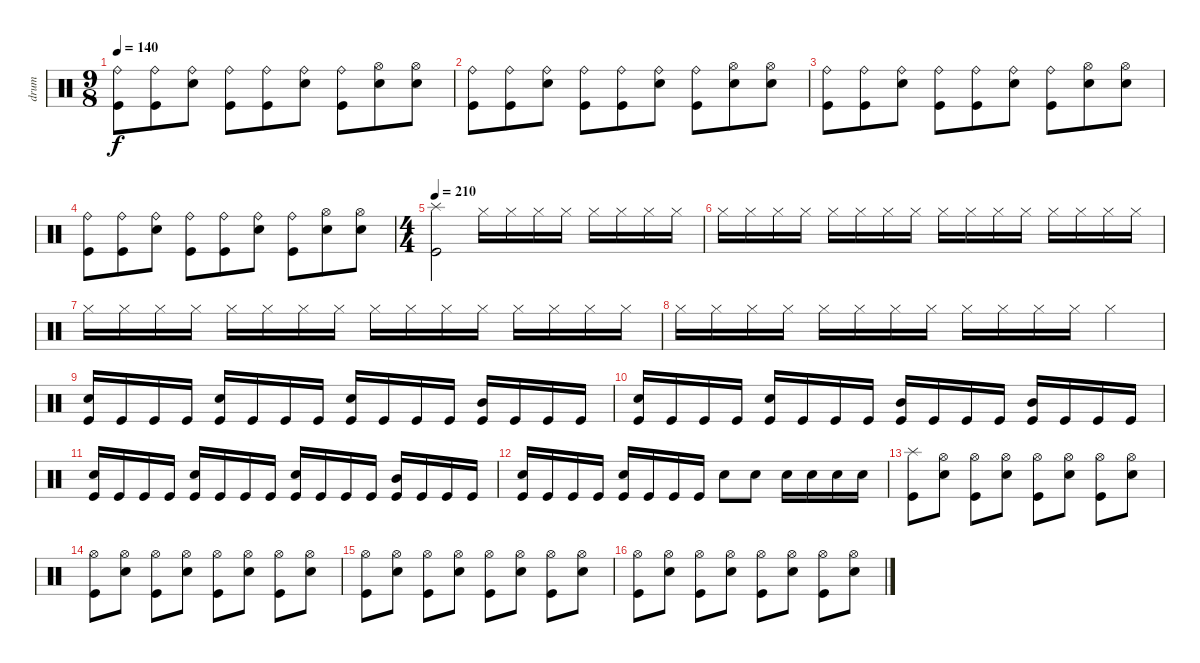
\track ("drum" "drum") {instrument percussion}
\staff {score}
\articulation defaults
\ts (9 8)
\tempo 140
\clef neutral
\ks c
("Kick (hit)" "Ride (bell)").8{dy f} ("Kick (hit)" "Ride (bell)").8 ("Electric Snare (hit)" "Ride (bell)").8 ("Kick (hit)" "Ride (bell)").8 ("Kick (hit)" "Ride (bell)").8 ("Electric Snare (hit)" "Ride (bell)").8 ("Kick (hit)" "Ride (bell)").8 ("Electric Snare (hit)" "Hi-Hat (open)").8 ("Electric Snare (hit)" "Hi-Hat (open)").8 |
("Kick (hit)" "Ride (bell)").8 ("Kick (hit)" "Ride (bell)").8 ("Electric Snare (hit)" "Ride (bell)").8 ("Kick (hit)" "Ride (bell)").8 ("Kick (hit)" "Ride (bell)").8 ("Electric Snare (hit)" "Ride (bell)").8 ("Kick (hit)" "Ride (bell)").8 ("Electric Snare (hit)" "Hi-Hat (open)").8 ("Electric Snare (hit)" "Hi-Hat (open)").8 |
("Kick (hit)" "Ride (bell)").8 ("Kick (hit)" "Ride (bell)").8 ("Electric Snare (hit)" "Ride (bell)").8 ("Kick (hit)" "Ride (bell)").8 ("Kick (hit)" "Ride (bell)").8 ("Electric Snare (hit)" "Ride (bell)").8 ("Kick (hit)" "Ride (bell)").8 ("Electric Snare (hit)" "Hi-Hat (open)").8 ("Electric Snare (hit)" "Hi-Hat (open)").8 |
("Kick (hit)" "Ride (bell)").8 ("Kick (hit)" "Ride (bell)").8 ("Electric Snare (hit)" "Ride (bell)").8 ("Kick (hit)" "Ride (bell)").8 ("Kick (hit)" "Ride (bell)").8 ("Electric Snare (hit)" "Ride (bell)").8 ("Kick (hit)" "Ride (bell)").8 ("Electric Snare (hit)" "Hi-Hat (open)").8 ("Electric Snare (hit)" "Hi-Hat (open)").8 |
\ts (4 4)
\tempo 210
("Kick (hit)" "Splash (hit)").2 "Hi-Hat (closed)".16 "Hi-Hat (closed)".16 "Hi-Hat (closed)".16 "Hi-Hat (closed)".16 "Hi-Hat (closed)".16 "Hi-Hat (closed)".16 "Hi-Hat (closed)".16 "Hi-Hat (closed)".16 |
"Hi-Hat (closed)".16 "Hi-Hat (closed)".16 "Hi-Hat (closed)".16 "Hi-Hat (closed)".16 "Hi-Hat (closed)".16 "Hi-Hat (closed)".16 "Hi-Hat (closed)".16 "Hi-Hat (closed)".16 "Hi-Hat (closed)".16 "Hi-Hat (closed)".16 "Hi-Hat (closed)".16 "Hi-Hat (closed)".16 "Hi-Hat (closed)".16 "Hi-Hat (closed)".16 "Hi-Hat (closed)".16 "Hi-Hat (closed)".16 |
"Hi-Hat (closed)".16 "Hi-Hat (closed)".16 "Hi-Hat (closed)".16 "Hi-Hat (closed)".16 "Hi-Hat (closed)".16 "Hi-Hat (closed)".16 "Hi-Hat (closed)".16 "Hi-Hat (closed)".16 "Hi-Hat (closed)".16 "Hi-Hat (closed)".16 "Hi-Hat (closed)".16 "Hi-Hat (closed)".16 "Hi-Hat (closed)".16 "Hi-Hat (closed)".16 "Hi-Hat (closed)".16 "Hi-Hat (closed)".16 |
"Hi-Hat (closed)".16 "Hi-Hat (closed)".16 "Hi-Hat (closed)".16 "Hi-Hat (closed)".16 "Hi-Hat (closed)".16 "Hi-Hat (closed)".16 "Hi-Hat (closed)".16 "Hi-Hat (closed)".16 "Hi-Hat (closed)".16 "Hi-Hat (closed)".16 "Hi-Hat (closed)".16 "Hi-Hat (closed)".16 "Hi-Hat (closed)".4 |
("Kick (hit)" "Electric Snare (hit)").16 "Kick (hit)".16 "Kick (hit)".16 "Kick (hit)".16 ("Kick (hit)" "Electric Snare (hit)").16 "Kick (hit)".16 "Kick (hit)".16 "Kick (hit)".16 ("Kick (hit)" "Electric Snare (hit)").16 "Kick (hit)".16 "Kick (hit)".16 "Kick (hit)".16 ("Kick (hit)" "Mid Tom (hit)").16 "Kick (hit)".16 "Kick (hit)".16 "Kick (hit)".16 |
("Kick (hit)" "Electric Snare (hit)").16 "Kick (hit)".16 "Kick (hit)".16 "Kick (hit)".16 ("Kick (hit)" "Electric Snare (hit)").16 "Kick (hit)".16 "Kick (hit)".16 "Kick (hit)".16 ("Kick (hit)" "Mid Tom (hit)").16 "Kick (hit)".16 "Kick (hit)".16 "Kick (hit)".16 ("Kick (hit)" "Mid Tom (hit)").16 "Kick (hit)".16 "Kick (hit)".16 "Kick (hit)".16 |
("Kick (hit)" "Electric Snare (hit)").16 "Kick (hit)".16 "Kick (hit)".16 "Kick (hit)".16 ("Kick (hit)" "Electric Snare (hit)").16 "Kick (hit)".16 "Kick (hit)".16 "Kick (hit)".16 ("Kick (hit)" "Electric Snare (hit)").16 "Kick (hit)".16 "Kick (hit)".16 "Kick (hit)".16 ("Kick (hit)" "Mid Tom (hit)").16 "Kick (hit)".16 "Kick (hit)".16 "Kick (hit)".16 |
("Kick (hit)" "Electric Snare (hit)").16 "Kick (hit)".16 "Kick (hit)".16 "Kick (hit)".16 ("Kick (hit)" "Electric Snare (hit)").16 "Kick (hit)".16 "Kick (hit)".16 "Kick (hit)".16 "Electric Snare (hit)".8 "Electric Snare (hit)".8 "Electric Snare (hit)".16 "Electric Snare (hit)".16 "Electric Snare (hit)".16 "Electric Snare (hit)".16 |
("Kick (hit)" "Splash (hit)").8 ("Electric Snare (hit)" "Hi-Hat (open)").8 ("Kick (hit)" "Hi-Hat (open)").8 ("Electric Snare (hit)" "Hi-Hat (open)").8 ("Kick (hit)" "Hi-Hat (open)").8 ("Electric Snare (hit)" "Hi-Hat (open)").8 ("Kick (hit)" "Hi-Hat (open)").8 ("Electric Snare (hit)" "Hi-Hat (open)").8 |
("Kick (hit)" "Hi-Hat (open)").8 ("Electric Snare (hit)" "Hi-Hat (open)").8 ("Kick (hit)" "Hi-Hat (open)").8 ("Electric Snare (hit)" "Hi-Hat (open)").8 ("Kick (hit)" "Hi-Hat (open)").8 ("Electric Snare (hit)" "Hi-Hat (open)").8 ("Kick (hit)" "Hi-Hat (open)").8 ("Electric Snare (hit)" "Hi-Hat (open)").8 |
("Kick (hit)" "Hi-Hat (open)").8 ("Electric Snare (hit)" "Hi-Hat (open)").8 ("Kick (hit)" "Hi-Hat (open)").8 ("Electric Snare (hit)" "Hi-Hat (open)").8 ("Kick (hit)" "Hi-Hat (open)").8 ("Electric Snare (hit)" "Hi-Hat (open)").8 ("Kick (hit)" "Hi-Hat (open)").8 ("Electric Snare (hit)" "Hi-Hat (open)").8 |
("Kick (hit)" "Hi-Hat (open)").8 ("Electric Snare (hit)" "Hi-Hat (open)").8 ("Kick (hit)" "Hi-Hat (open)").8 ("Electric Snare (hit)" "Hi-Hat (open)").8 ("Kick (hit)" "Hi-Hat (open)").8 ("Electric Snare (hit)" "Hi-Hat (open)").8 ("Kick (hit)" "Hi-Hat (open)").8 ("Electric Snare (hit)" "Hi-Hat (open)").8
